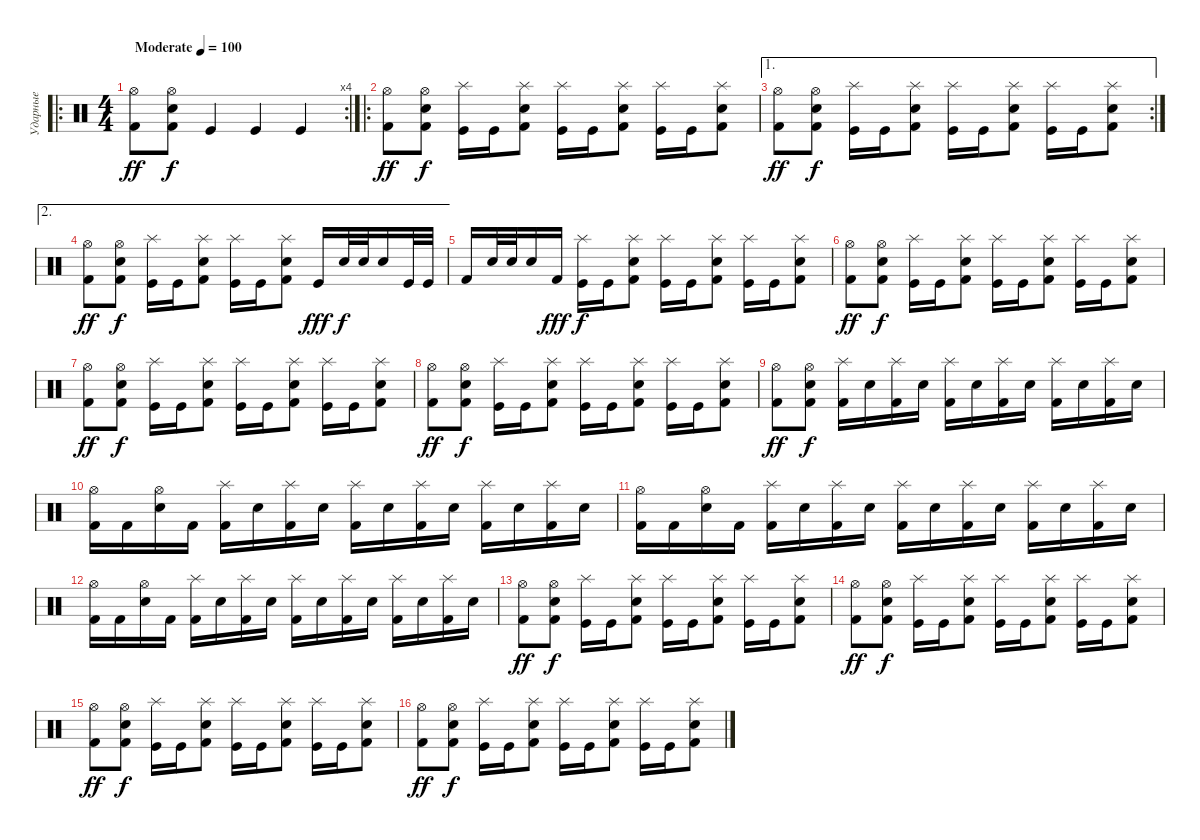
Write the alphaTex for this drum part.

\track ("Ударные" "Ударные") {instrument percussion}
\staff {score}
\articulation defaults
\ro
\rc 4
\ts (4 4)
\tempo (100 "Moderate")
\clef neutral
\ks c
("Hi-Hat (open)" "Kick (hit) 2").8{dy ff} ("Hi-Hat (open)" "Electric Snare (hit)" "Kick (hit) 2").8{dy f} "Kick (hit)".4 "Kick (hit)".4 "Kick (hit)".4 |
\ro
("Hi-Hat (open)" "Kick (hit) 2").8{dy ff} ("Hi-Hat (open)" "Electric Snare (hit)" "Kick (hit) 2").8{dy f} ("Splash (hit)" "Kick (hit)").16 "Kick (hit)".16 ("Splash (hit)" "Electric Snare (hit)" "Kick (hit) 2").8 ("Splash (hit)" "Kick (hit)").16 "Kick (hit)".16 ("Splash (hit)" "Electric Snare (hit)" "Kick (hit) 2").8 ("Splash (hit)" "Kick (hit)").16 "Kick (hit)".16 ("Splash (hit)" "Electric Snare (hit)" "Kick (hit) 2").8 |
\ae 1
\rc 2
("Hi-Hat (open)" "Kick (hit) 2").8{dy ff} ("Hi-Hat (open)" "Electric Snare (hit)" "Kick (hit) 2").8{dy f} ("Splash (hit)" "Kick (hit)").16 "Kick (hit)".16 ("Splash (hit)" "Electric Snare (hit)" "Kick (hit) 2").8 ("Splash (hit)" "Kick (hit)").16 "Kick (hit)".16 ("Splash (hit)" "Electric Snare (hit)" "Kick (hit) 2").8 ("Splash (hit)" "Kick (hit)").16 "Kick (hit)".16 ("Splash (hit)" "Electric Snare (hit)" "Kick (hit) 2").8 |
\ae 2
("Hi-Hat (open)" "Kick (hit) 2").8{dy ff} ("Hi-Hat (open)" "Electric Snare (hit)" "Kick (hit) 2").8{dy f} ("Splash (hit)" "Kick (hit)").16 "Kick (hit)".16 ("Splash (hit)" "Electric Snare (hit)" "Kick (hit) 2").8 ("Splash (hit)" "Kick (hit)").16 "Kick (hit)".16 ("Splash (hit)" "Electric Snare (hit)" "Kick (hit) 2").8 "Kick (hit)".16{dy fff} "Electric Snare (hit)".32{dy f} "Electric Snare (hit)".32 "Snare (hit) 2".16 "Kick (hit)".32 "Kick (hit)".32 |
"Kick (hit) 2".16 "Electric Snare (hit)".32 "Electric Snare (hit)".32 "Snare (hit) 2".16 "Kick (hit) 2".16{dy fff} ("Splash (hit)" "Kick (hit)").16{dy f} "Kick (hit)".16 ("Splash (hit)" "Electric Snare (hit)" "Kick (hit) 2").8 ("Splash (hit)" "Kick (hit)").16 "Kick (hit)".16 ("Splash (hit)" "Electric Snare (hit)" "Kick (hit) 2").8 ("Splash (hit)" "Kick (hit)").16 "Kick (hit)".16 ("Splash (hit)" "Electric Snare (hit)" "Kick (hit) 2").8 |
("Hi-Hat (open)" "Kick (hit) 2").8{dy ff} ("Hi-Hat (open)" "Electric Snare (hit)" "Kick (hit) 2").8{dy f} ("Splash (hit)" "Kick (hit)").16 "Kick (hit)".16 ("Splash (hit)" "Electric Snare (hit)" "Kick (hit) 2").8 ("Splash (hit)" "Kick (hit)").16 "Kick (hit)".16 ("Splash (hit)" "Electric Snare (hit)" "Kick (hit) 2").8 ("Splash (hit)" "Kick (hit)").16 "Kick (hit)".16 ("Splash (hit)" "Electric Snare (hit)" "Kick (hit) 2").8 |
("Hi-Hat (open)" "Kick (hit) 2").8{dy ff} ("Hi-Hat (open)" "Electric Snare (hit)" "Kick (hit) 2").8{dy f} ("Splash (hit)" "Kick (hit)").16 "Kick (hit)".16 ("Splash (hit)" "Electric Snare (hit)" "Kick (hit) 2").8 ("Splash (hit)" "Kick (hit)").16 "Kick (hit)".16 ("Splash (hit)" "Electric Snare (hit)" "Kick (hit) 2").8 ("Splash (hit)" "Kick (hit)").16 "Kick (hit)".16 ("Splash (hit)" "Electric Snare (hit)" "Kick (hit) 2").8 |
("Hi-Hat (open)" "Kick (hit) 2").8{dy ff} ("Hi-Hat (open)" "Electric Snare (hit)" "Kick (hit) 2").8{dy f} ("Splash (hit)" "Kick (hit)").16 "Kick (hit)".16 ("Splash (hit)" "Electric Snare (hit)" "Kick (hit) 2").8 ("Splash (hit)" "Kick (hit)").16 "Kick (hit)".16 ("Splash (hit)" "Electric Snare (hit)" "Kick (hit) 2").8 ("Splash (hit)" "Kick (hit)").16 "Kick (hit)".16 ("Splash (hit)" "Electric Snare (hit)" "Kick (hit) 2").8 |
("Hi-Hat (open)" "Kick (hit) 2").8{dy ff} ("Hi-Hat (open)" "Electric Snare (hit)" "Kick (hit) 2").8{dy f} ("Splash (hit)" "Kick (hit) 2").16 "Electric Snare (hit)".16 ("Splash (hit)" "Kick (hit) 2").16 "Electric Snare (hit)".16 ("Splash (hit)" "Kick (hit) 2").16 "Electric Snare (hit)".16 ("Splash (hit)" "Kick (hit) 2").16 "Electric Snare (hit)".16 ("Splash (hit)" "Kick (hit) 2").16 "Electric Snare (hit)".16 ("Splash (hit)" "Kick (hit) 2").16 "Electric Snare (hit)".16 |
("Hi-Hat (open)" "Kick (hit) 2").16 "Kick (hit) 2".16 ("Hi-Hat (open)" "Electric Snare (hit)").16 "Kick (hit) 2".16 ("Splash (hit)" "Kick (hit) 2").16 "Electric Snare (hit)".16 ("Splash (hit)" "Kick (hit) 2").16 "Electric Snare (hit)".16 ("Splash (hit)" "Kick (hit) 2").16 "Electric Snare (hit)".16 ("Splash (hit)" "Kick (hit) 2").16 "Electric Snare (hit)".16 ("Splash (hit)" "Kick (hit) 2").16 "Electric Snare (hit)".16 ("Splash (hit)" "Kick (hit) 2").16 "Electric Snare (hit)".16 |
("Hi-Hat (open)" "Kick (hit) 2").16 "Kick (hit) 2".16 ("Hi-Hat (open)" "Electric Snare (hit)").16 "Kick (hit) 2".16 ("Splash (hit)" "Kick (hit) 2").16 "Electric Snare (hit)".16 ("Splash (hit)" "Kick (hit) 2").16 "Electric Snare (hit)".16 ("Splash (hit)" "Kick (hit) 2").16 "Electric Snare (hit)".16 ("Splash (hit)" "Kick (hit) 2").16 "Electric Snare (hit)".16 ("Splash (hit)" "Kick (hit) 2").16 "Electric Snare (hit)".16 ("Splash (hit)" "Kick (hit) 2").16 "Electric Snare (hit)".16 |
("Hi-Hat (open)" "Kick (hit) 2").16 "Kick (hit) 2".16 ("Hi-Hat (open)" "Electric Snare (hit)").16 "Kick (hit) 2".16 ("Splash (hit)" "Kick (hit) 2").16 "Electric Snare (hit)".16 ("Splash (hit)" "Kick (hit) 2").16 "Electric Snare (hit)".16 ("Splash (hit)" "Kick (hit) 2").16 "Electric Snare (hit)".16 ("Splash (hit)" "Kick (hit) 2").16 "Electric Snare (hit)".16 ("Splash (hit)" "Kick (hit) 2").16 "Electric Snare (hit)".16 ("Splash (hit)" "Kick (hit) 2").16 "Electric Snare (hit)".16 |
("Hi-Hat (open)" "Kick (hit) 2").8{dy ff} ("Hi-Hat (open)" "Electric Snare (hit)" "Kick (hit) 2").8{dy f} ("Splash (hit)" "Kick (hit)").16 "Kick (hit)".16 ("Splash (hit)" "Electric Snare (hit)" "Kick (hit) 2").8 ("Splash (hit)" "Kick (hit)").16 "Kick (hit)".16 ("Splash (hit)" "Electric Snare (hit)" "Kick (hit) 2").8 ("Splash (hit)" "Kick (hit)").16 "Kick (hit)".16 ("Splash (hit)" "Electric Snare (hit)" "Kick (hit) 2").8 |
("Hi-Hat (open)" "Kick (hit) 2").8{dy ff} ("Hi-Hat (open)" "Electric Snare (hit)" "Kick (hit) 2").8{dy f} ("Splash (hit)" "Kick (hit)").16 "Kick (hit)".16 ("Splash (hit)" "Electric Snare (hit)" "Kick (hit) 2").8 ("Splash (hit)" "Kick (hit)").16 "Kick (hit)".16 ("Splash (hit)" "Electric Snare (hit)" "Kick (hit) 2").8 ("Splash (hit)" "Kick (hit)").16 "Kick (hit)".16 ("Splash (hit)" "Electric Snare (hit)" "Kick (hit) 2").8 |
("Hi-Hat (open)" "Kick (hit) 2").8{dy ff} ("Hi-Hat (open)" "Electric Snare (hit)" "Kick (hit) 2").8{dy f} ("Splash (hit)" "Kick (hit)").16 "Kick (hit)".16 ("Splash (hit)" "Electric Snare (hit)" "Kick (hit) 2").8 ("Splash (hit)" "Kick (hit)").16 "Kick (hit)".16 ("Splash (hit)" "Electric Snare (hit)" "Kick (hit) 2").8 ("Splash (hit)" "Kick (hit)").16 "Kick (hit)".16 ("Splash (hit)" "Electric Snare (hit)" "Kick (hit) 2").8 |
("Hi-Hat (open)" "Kick (hit) 2").8{dy ff} ("Hi-Hat (open)" "Electric Snare (hit)" "Kick (hit) 2").8{dy f} ("Splash (hit)" "Kick (hit)").16 "Kick (hit)".16 ("Splash (hit)" "Electric Snare (hit)" "Kick (hit) 2").8 ("Splash (hit)" "Kick (hit)").16 "Kick (hit)".16 ("Splash (hit)" "Electric Snare (hit)" "Kick (hit) 2").8 ("Splash (hit)" "Kick (hit)").16 "Kick (hit)".16 ("Splash (hit)" "Electric Snare (hit)" "Kick (hit) 2").8
